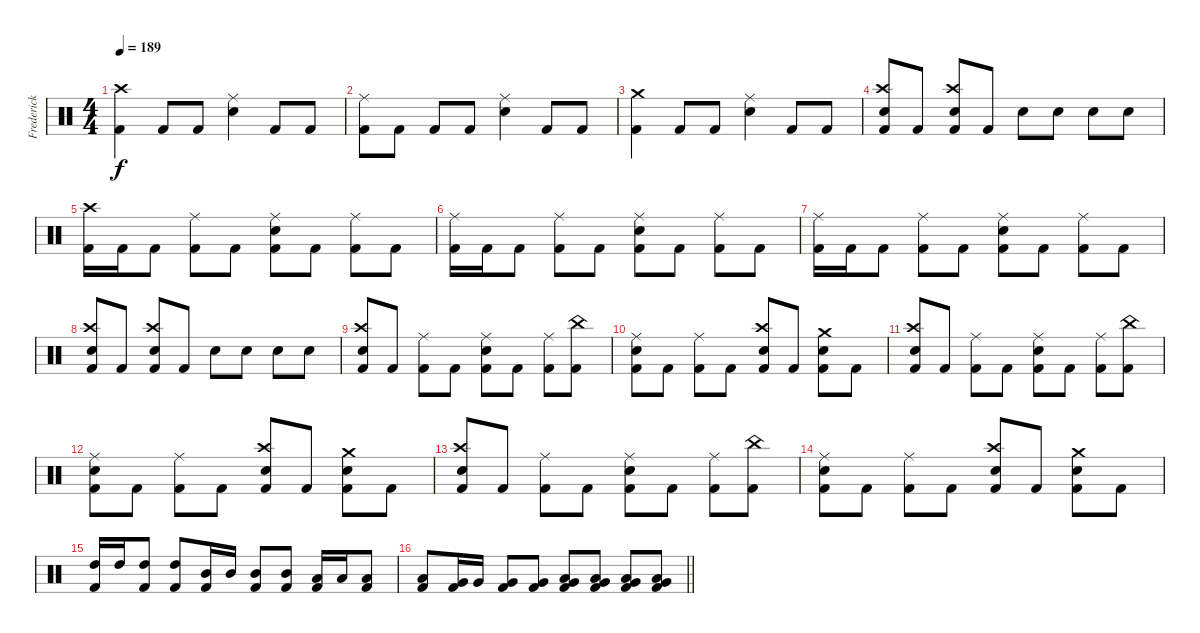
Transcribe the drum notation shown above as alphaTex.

\track ("Frederick Ehmke" "Frederick ") {instrument percussion}
\staff {score}
\articulation defaults
\ts (4 4)
\tempo 189
\clef neutral
\ks c
("Kick (hit) 2" "Crash high (hit)").4{dy f} "Kick (hit) 2".8 "Kick (hit) 2".8 ("Electric Snare (hit)" "Ride (middle)").4 "Kick (hit) 2".8 "Kick (hit) 2".8 |
("Kick (hit) 2" "Ride (middle)").8 "Kick (hit) 2".8 "Kick (hit) 2".8 "Kick (hit) 2".8 ("Electric Snare (hit)" "Ride (middle)").4 "Kick (hit) 2".8 "Kick (hit) 2".8 |
("Kick (hit) 2" "Crash medium (hit)").4 "Kick (hit) 2".8 "Kick (hit) 2".8 ("Electric Snare (hit)" "Ride (middle)").4 "Kick (hit) 2".8 "Kick (hit) 2".8 |
("Electric Snare (hit)" "Kick (hit) 2" "Crash high (hit)").8 "Kick (hit) 2".8 ("Electric Snare (hit)" "Kick (hit) 2" "Crash high (hit)").8 "Kick (hit) 2".8 "Electric Snare (hit)".8 "Electric Snare (hit)".8 "Electric Snare (hit)".8 "Electric Snare (hit)".8 |
("Kick (hit) 2" "Crash high (hit)").16 "Kick (hit) 2".16 "Kick (hit) 2".8 ("Kick (hit) 2" "Ride (middle)").8 "Kick (hit) 2".8 ("Electric Snare (hit)" "Kick (hit) 2" "Ride (middle)").8 "Kick (hit) 2".8 ("Kick (hit) 2" "Ride (middle)").8 "Kick (hit) 2".8 |
("Kick (hit) 2" "Ride (middle)").16 "Kick (hit) 2".16 "Kick (hit) 2".8 ("Kick (hit) 2" "Ride (middle)").8 "Kick (hit) 2".8 ("Electric Snare (hit)" "Kick (hit) 2" "Ride (middle)").8 "Kick (hit) 2".8 ("Kick (hit) 2" "Ride (middle)").8 "Kick (hit) 2".8 |
("Kick (hit) 2" "Ride (middle)").16 "Kick (hit) 2".16 "Kick (hit) 2".8 ("Kick (hit) 2" "Ride (middle)").8 "Kick (hit) 2".8 ("Electric Snare (hit)" "Kick (hit) 2" "Ride (middle)").8 "Kick (hit) 2".8 ("Kick (hit) 2" "Ride (middle)").8 "Kick (hit) 2".8 |
("Electric Snare (hit)" "Kick (hit) 2" "Crash high (hit)").8 "Kick (hit) 2".8 ("Electric Snare (hit)" "Kick (hit) 2" "Crash high (hit)").8 "Kick (hit) 2".8 "Electric Snare (hit)".8 "Electric Snare (hit)".8 "Electric Snare (hit)".8 "Electric Snare (hit)".8 |
("Electric Snare (hit)" "Kick (hit) 2" "Crash high (hit)").8 "Kick (hit) 2".8 ("Kick (hit) 2" "Ride (middle)").8 "Kick (hit) 2".8 ("Electric Snare (hit)" "Kick (hit) 2" "Ride (middle)").8 "Kick (hit) 2".8 ("Kick (hit) 2" "Ride (middle)").8 ("Kick (hit) 2" "China (hit)").8 |
("Electric Snare (hit)" "Kick (hit) 2" "Ride (middle)").8 "Kick (hit) 2".8 ("Kick (hit) 2" "Ride (middle)").8 "Kick (hit) 2".8 ("Electric Snare (hit)" "Kick (hit) 2" "Crash high (hit)").8 "Kick (hit) 2".8 ("Electric Snare (hit)" "Kick (hit) 2" "Crash medium (hit)").8 "Kick (hit) 2".8 |
("Electric Snare (hit)" "Kick (hit) 2" "Crash high (hit)").8 "Kick (hit) 2".8 ("Kick (hit) 2" "Ride (middle)").8 "Kick (hit) 2".8 ("Electric Snare (hit)" "Kick (hit) 2" "Ride (middle)").8 "Kick (hit) 2".8 ("Kick (hit) 2" "Ride (middle)").8 ("Kick (hit) 2" "China (hit)").8 |
("Electric Snare (hit)" "Kick (hit) 2" "Ride (middle)").8 "Kick (hit) 2".8 ("Kick (hit) 2" "Ride (middle)").8 "Kick (hit) 2".8 ("Electric Snare (hit)" "Kick (hit) 2" "Crash high (hit)").8 "Kick (hit) 2".8 ("Electric Snare (hit)" "Kick (hit) 2" "Crash medium (hit)").8 "Kick (hit) 2".8 |
("Electric Snare (hit)" "Kick (hit) 2" "Crash high (hit)").8 "Kick (hit) 2".8 ("Kick (hit) 2" "Ride (middle)").8 "Kick (hit) 2".8 ("Electric Snare (hit)" "Kick (hit) 2" "Ride (middle)").8 "Kick (hit) 2".8 ("Kick (hit) 2" "Ride (middle)").8 ("Kick (hit) 2" "China (hit)").8 |
("Electric Snare (hit)" "Kick (hit) 2" "Ride (middle)").8 "Kick (hit) 2".8 ("Kick (hit) 2" "Ride (middle)").8 "Kick (hit) 2".8 ("Electric Snare (hit)" "Kick (hit) 2" "Crash high (hit)").8 "Kick (hit) 2".8 ("Electric Snare (hit)" "Kick (hit) 2" "Crash medium (hit)").8 "Kick (hit) 2".8 |
("Kick (hit) 2" "High Tom (hit)").16 "High Tom (hit)".16 ("Kick (hit) 2" "High Tom (hit)").8 ("Kick (hit) 2" "High Tom (hit)").8 ("Kick (hit) 2" "Mid Tom (hit)").16 "Mid Tom (hit)".16 ("Kick (hit) 2" "Mid Tom (hit)").8 ("Kick (hit) 2" "Mid Tom (hit)").8 ("Kick (hit) 2" "Low Tom (hit)").16 "Low Tom (hit)".16 ("Kick (hit) 2" "Low Tom (hit)").8 |
\barLineRight lightlight
("Kick (hit) 2" "Low Tom (hit)").8 ("Kick (hit) 2" "Very Low Tom (hit)").16 "Very Low Tom (hit)".16 ("Kick (hit) 2" "Very Low Tom (hit)").8 ("Kick (hit) 2" "Very Low Tom (hit)").8 ("Kick (hit) 2" "Low Floor Tom (hit)" "Very Low Tom (hit)").8 ("Kick (hit) 2" "Low Floor Tom (hit)" "Very Low Tom (hit)").8 ("Kick (hit) 2" "Low Floor Tom (hit)" "Very Low Tom (hit)").8 ("Kick (hit) 2" "Low Floor Tom (hit)" "Very Low Tom (hit)").8
